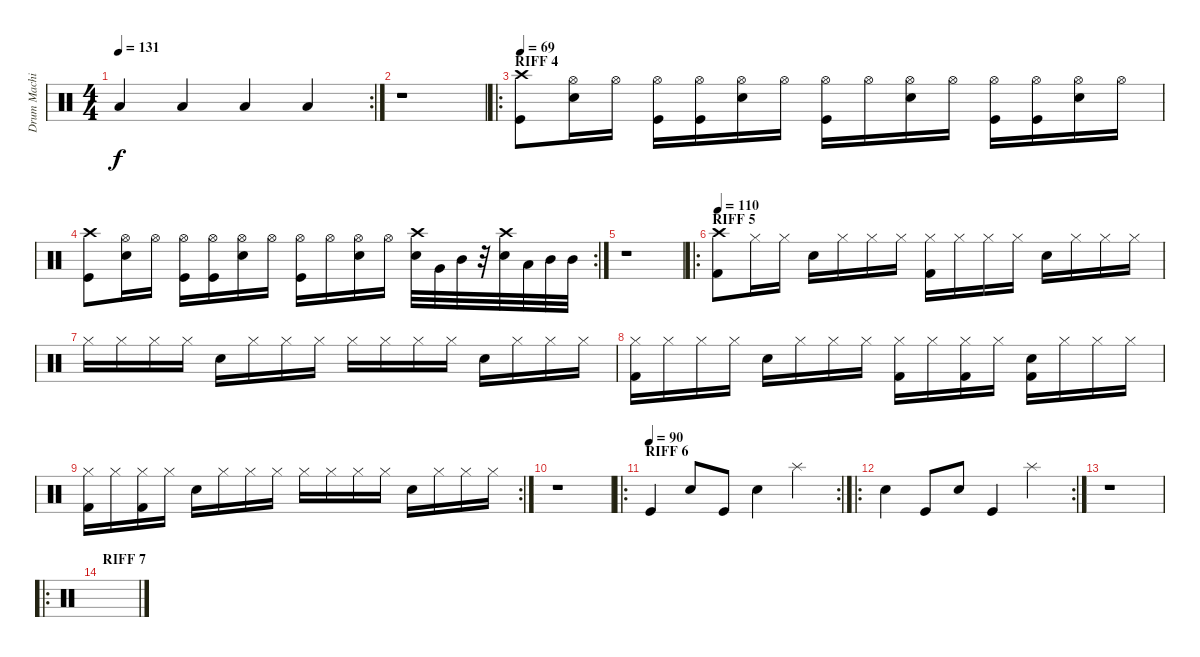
\track ("Drum Machine" "Drum Machi") {instrument percussion}
\staff {score}
\articulation defaults
\rc 2
\ts (4 4)
\tempo 131
\clef neutral
\ks c "Low Tom (hit)".4{dy f} "Low Tom (hit)".4 "Low Tom (hit)".4 "Low Tom (hit)".4
|
r.1 |
\ro
\section ("" "RIFF 4")
\tempo 69
("Crash high (hit)" "Kick (hit)").8 ("Hi-Hat (open)" "Snare (hit) 2").16 "Hi-Hat (open)".16 ("Hi-Hat (open)" "Kick (hit)").16 ("Hi-Hat (open)" "Kick (hit)").16 ("Hi-Hat (open)" "Snare (hit) 2").16 "Hi-Hat (open)".16 ("Hi-Hat (open)" "Kick (hit)").16 "Hi-Hat (open)".16 ("Hi-Hat (open)" "Snare (hit) 2").16 "Hi-Hat (open)".16 ("Hi-Hat (open)" "Kick (hit)").16 ("Hi-Hat (open)" "Kick (hit)").16 ("Hi-Hat (open)" "Snare (hit) 2").16 "Hi-Hat (open)".16 |
\rc 2
("Crash high (hit)" "Kick (hit)").8 ("Hi-Hat (open)" "Snare (hit) 2").16 "Hi-Hat (open)".16 ("Hi-Hat (open)" "Kick (hit)").16 ("Hi-Hat (open)" "Kick (hit)").16 ("Hi-Hat (open)" "Snare (hit) 2").16 "Hi-Hat (open)".16 ("Hi-Hat (open)" "Kick (hit)").16 "Hi-Hat (open)".16 ("Hi-Hat (open)" "Snare (hit) 2").16 "Hi-Hat (open)".16 ("Crash high (hit)" "Snare (hit) 2").32 "Very Low Tom (hit)".32 "Mid Tom (hit)".32 r.32 ("Crash high (hit)" "Snare (hit) 2").32 "Low Tom (hit)".32 "Mid Tom (hit)".32 "Mid Tom (hit)".32 |
r.1 |
\ro
\section ("" "RIFF 5")
\tempo 110
("Crash high (hit)" "Kick (hit) 2").8 "Hi-Hat (closed)".16 "Hi-Hat (closed)".16 "Electric Snare (hit)".16 "Hi-Hat (closed)".16 "Hi-Hat (closed)".16 "Hi-Hat (closed)".16 ("Hi-Hat (closed)" "Kick (hit) 2").16 "Hi-Hat (closed)".16 "Hi-Hat (closed)".16 "Hi-Hat (closed)".16 "Electric Snare (hit)".16 "Hi-Hat (closed)".16 "Hi-Hat (closed)".16 "Hi-Hat (closed)".16 |
"Hi-Hat (closed)".16 "Hi-Hat (closed)".16 "Hi-Hat (closed)".16 "Hi-Hat (closed)".16 "Electric Snare (hit)".16 "Hi-Hat (closed)".16 "Hi-Hat (closed)".16 "Hi-Hat (closed)".16 "Hi-Hat (closed)".16 "Hi-Hat (closed)".16 "Hi-Hat (closed)".16 "Hi-Hat (closed)".16 "Electric Snare (hit)".16 "Hi-Hat (closed)".16 "Hi-Hat (closed)".16 "Hi-Hat (closed)".16 |
("Hi-Hat (closed)" "Kick (hit) 2").16 "Hi-Hat (closed)".16 "Hi-Hat (closed)".16 "Hi-Hat (closed)".16 "Electric Snare (hit)".16 "Hi-Hat (closed)".16 "Hi-Hat (closed)".16 "Hi-Hat (closed)".16 ("Hi-Hat (closed)" "Kick (hit) 2").16 "Hi-Hat (closed)".16 ("Hi-Hat (closed)" "Kick (hit) 2").16 "Hi-Hat (closed)".16 ("Electric Snare (hit)" "Kick (hit) 2").16 "Hi-Hat (closed)".16 "Hi-Hat (closed)".16 "Hi-Hat (closed)".16 |
\rc 2
("Hi-Hat (closed)" "Kick (hit) 2").16 "Hi-Hat (closed)".16 ("Hi-Hat (closed)" "Kick (hit) 2").16 "Hi-Hat (closed)".16 "Electric Snare (hit)".16 "Hi-Hat (closed)".16 "Hi-Hat (closed)".16 "Hi-Hat (closed)".16 "Hi-Hat (closed)".16 "Hi-Hat (closed)".16 "Hi-Hat (closed)".16 "Hi-Hat (closed)".16 "Electric Snare (hit)".16 "Hi-Hat (closed)".16 "Hi-Hat (closed)".16 "Hi-Hat (closed)".16 |
r.1 |
\ro
\rc 2
\section ("" "RIFF 6")
\tempo (90)
"Kick (hit)".4 "Snare (hit) 2".8 "Kick (hit)".8 "Snare (hit) 2".4 "Splash (hit)".4 |
\ro
\rc 2 "Snare (hit) 2".4 "Kick (hit)".8 "Snare (hit) 2".8 "Kick (hit)".4 "Splash (hit)".4
|
r.1 |
\ro
\section ("" "RIFF 7")
